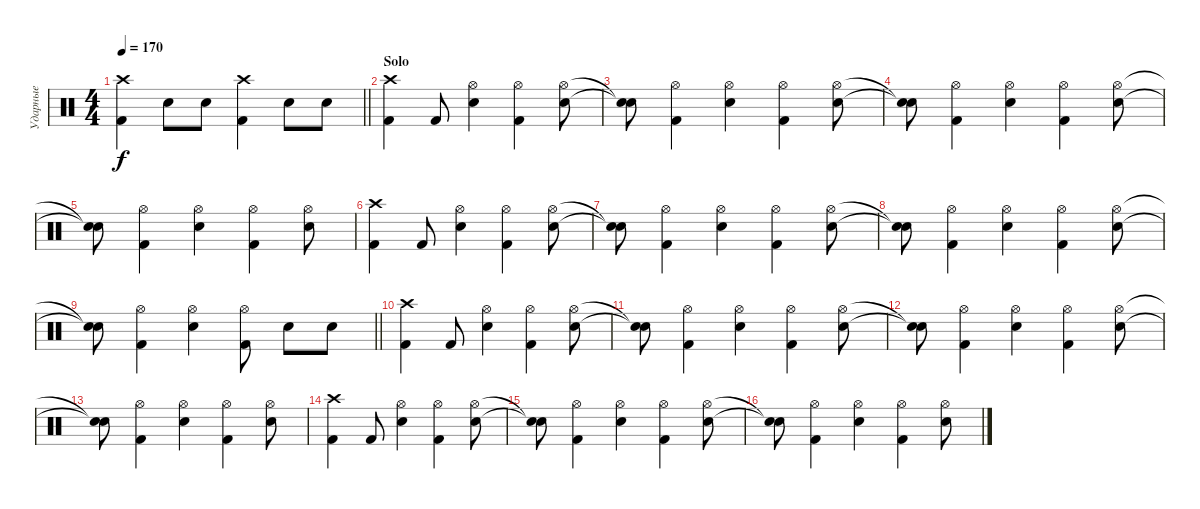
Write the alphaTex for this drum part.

\track ("Ударные" "Ударные") {instrument percussion}
\staff {score}
\articulation defaults
\ts (4 4)
\tempo 170
\clef neutral
\barLineRight lightlight
\ks c
("Crash high (hit)" "Kick (hit) 2").4{dy f} "Snare (hit) 2".8 "Snare (hit) 2".8 ("Crash high (hit)" "Kick (hit) 2").4 "Snare (hit) 2".8 "Snare (hit) 2".8 |
\section ("" "Solo")
("Crash high (hit)" "Kick (hit) 2").4 "Kick (hit) 2".8 ("Hi-Hat (open)" "Snare (hit) 2").4 ("Hi-Hat (open)" "Kick (hit) 2").4 ("Hi-Hat (open)" "Snare (hit) 2").8 |
("Snare (hit)"{t} "Snare (hit)"{t}).8 ("Hi-Hat (open)" "Kick (hit) 2").4 ("Hi-Hat (open)" "Snare (hit) 2").4 ("Hi-Hat (open)" "Kick (hit) 2").4 ("Hi-Hat (open)" "Snare (hit) 2").8 |
("Snare (hit)"{t} "Snare (hit)"{t}).8 ("Hi-Hat (open)" "Kick (hit) 2").4 ("Hi-Hat (open)" "Snare (hit) 2").4 ("Hi-Hat (open)" "Kick (hit) 2").4 ("Hi-Hat (open)" "Snare (hit) 2").8 |
("Snare (hit)"{t} "Snare (hit)"{t}).8 ("Hi-Hat (open)" "Kick (hit) 2").4 ("Hi-Hat (open)" "Snare (hit) 2").4 ("Hi-Hat (open)" "Kick (hit) 2").4 ("Hi-Hat (open)" "Snare (hit) 2").8 |
("Crash high (hit)" "Kick (hit) 2").4 "Kick (hit) 2".8 ("Hi-Hat (open)" "Snare (hit) 2").4 ("Hi-Hat (open)" "Kick (hit) 2").4 ("Hi-Hat (open)" "Snare (hit) 2").8 |
("Snare (hit)"{t} "Snare (hit)"{t}).8 ("Hi-Hat (open)" "Kick (hit) 2").4 ("Hi-Hat (open)" "Snare (hit) 2").4 ("Hi-Hat (open)" "Kick (hit) 2").4 ("Hi-Hat (open)" "Snare (hit) 2").8 |
("Snare (hit)"{t} "Snare (hit)"{t}).8 ("Hi-Hat (open)" "Kick (hit) 2").4 ("Hi-Hat (open)" "Snare (hit) 2").4 ("Hi-Hat (open)" "Kick (hit) 2").4 ("Hi-Hat (open)" "Snare (hit) 2").8 |
\barLineRight lightlight
("Snare (hit)"{t} "Snare (hit)"{t}).8 ("Hi-Hat (open)" "Kick (hit) 2").4 ("Hi-Hat (open)" "Snare (hit) 2").4 ("Kick (hit) 2" "Hi-Hat (open)").8 "Snare (hit) 2".8 "Snare (hit) 2".8 |
("Crash high (hit)" "Kick (hit) 2").4 "Kick (hit) 2".8 ("Hi-Hat (open)" "Snare (hit) 2").4 ("Hi-Hat (open)" "Kick (hit) 2").4 ("Hi-Hat (open)" "Snare (hit) 2").8 |
("Snare (hit)"{t} "Snare (hit)"{t}).8 ("Hi-Hat (open)" "Kick (hit) 2").4 ("Hi-Hat (open)" "Snare (hit) 2").4 ("Hi-Hat (open)" "Kick (hit) 2").4 ("Hi-Hat (open)" "Snare (hit) 2").8 |
("Snare (hit)"{t} "Snare (hit)"{t}).8 ("Hi-Hat (open)" "Kick (hit) 2").4 ("Hi-Hat (open)" "Snare (hit) 2").4 ("Hi-Hat (open)" "Kick (hit) 2").4 ("Hi-Hat (open)" "Snare (hit) 2").8 |
("Snare (hit)"{t} "Snare (hit)"{t}).8 ("Hi-Hat (open)" "Kick (hit) 2").4 ("Hi-Hat (open)" "Snare (hit) 2").4 ("Hi-Hat (open)" "Kick (hit) 2").4 ("Hi-Hat (open)" "Snare (hit) 2").8 |
("Crash high (hit)" "Kick (hit) 2").4 "Kick (hit) 2".8 ("Hi-Hat (open)" "Snare (hit) 2").4 ("Hi-Hat (open)" "Kick (hit) 2").4 ("Hi-Hat (open)" "Snare (hit) 2").8 |
("Snare (hit)"{t} "Snare (hit)"{t}).8 ("Hi-Hat (open)" "Kick (hit) 2").4 ("Hi-Hat (open)" "Snare (hit) 2").4 ("Hi-Hat (open)" "Kick (hit) 2").4 ("Hi-Hat (open)" "Snare (hit) 2").8 |
("Snare (hit)"{t} "Snare (hit)"{t}).8 ("Hi-Hat (open)" "Kick (hit) 2").4 ("Hi-Hat (open)" "Snare (hit) 2").4 ("Hi-Hat (open)" "Kick (hit) 2").4 ("Hi-Hat (open)" "Snare (hit) 2").8
